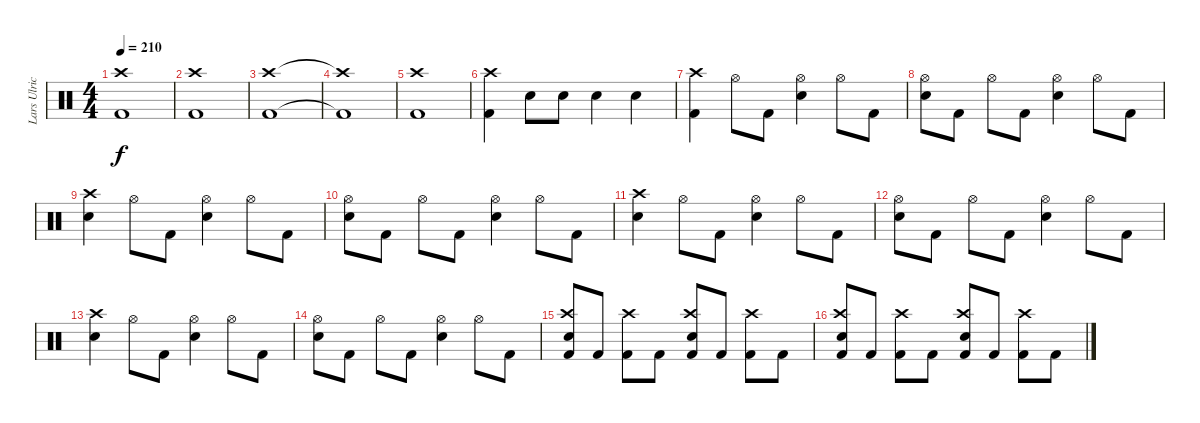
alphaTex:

\track ("Lars Ulrich" "Lars Ulric") {instrument percussion}
\staff {score}
\articulation defaults
\ts (4 4)
\tempo 210
\clef neutral
\ks c
("Kick (hit) 2"{t} "Crash high (hit)"{t}).1{dy f} |
("Kick (hit) 2" "Crash high (hit)").1 |
("Kick (hit) 2" "Crash high (hit)").1 |
("Kick (hit) 2"{t} "Crash high (hit)"{t}).1 |
("Kick (hit) 2" "Crash high (hit)").1 |
("Kick (hit) 2" "Crash high (hit)").4 "Snare (hit) 2".8 "Snare (hit) 2".8 "Snare (hit) 2".4 "Snare (hit) 2".4 |
("Kick (hit) 2" "Crash high (hit)").4 "Hi-Hat (open)".8 "Kick (hit) 2".8 ("Snare (hit) 2" "Hi-Hat (open)").4 "Hi-Hat (open)".8 "Kick (hit) 2".8 |
("Snare (hit) 2" "Hi-Hat (open)").8 "Kick (hit) 2".8 "Hi-Hat (open)".8 "Kick (hit) 2".8 ("Snare (hit) 2" "Hi-Hat (open)").4 "Hi-Hat (open)".8 "Kick (hit) 2".8 |
("Snare (hit) 2" "Crash high (hit)").4 "Hi-Hat (open)".8 "Kick (hit) 2".8 ("Snare (hit) 2" "Hi-Hat (open)").4 "Hi-Hat (open)".8 "Kick (hit) 2".8 |
("Snare (hit) 2" "Hi-Hat (open)").8 "Kick (hit) 2".8 "Hi-Hat (open)".8 "Kick (hit) 2".8 ("Snare (hit) 2" "Hi-Hat (open)").4 "Hi-Hat (open)".8 "Kick (hit) 2".8 |
("Snare (hit) 2" "Crash high (hit)").4 "Hi-Hat (open)".8 "Kick (hit) 2".8 ("Snare (hit) 2" "Hi-Hat (open)").4 "Hi-Hat (open)".8 "Kick (hit) 2".8 |
("Snare (hit) 2" "Hi-Hat (open)").8 "Kick (hit) 2".8 "Hi-Hat (open)".8 "Kick (hit) 2".8 ("Snare (hit) 2" "Hi-Hat (open)").4 "Hi-Hat (open)".8 "Kick (hit) 2".8 |
("Snare (hit) 2" "Crash high (hit)").4 "Hi-Hat (open)".8 "Kick (hit) 2".8 ("Snare (hit) 2" "Hi-Hat (open)").4 "Hi-Hat (open)".8 "Kick (hit) 2".8 |
("Snare (hit) 2" "Hi-Hat (open)").8 "Kick (hit) 2".8 "Hi-Hat (open)".8 "Kick (hit) 2".8 ("Snare (hit) 2" "Hi-Hat (open)").4 "Hi-Hat (open)".8 "Kick (hit) 2".8 |
("Kick (hit) 2" "Snare (hit) 2" "Crash high (hit)").8 "Kick (hit) 2".8 ("Kick (hit) 2" "Crash high (hit)").8 "Kick (hit) 2".8 ("Kick (hit) 2" "Snare (hit) 2" "Crash high (hit)").8 "Kick (hit) 2".8 ("Kick (hit) 2" "Crash high (hit)").8 "Kick (hit) 2".8 |
("Kick (hit) 2" "Snare (hit) 2" "Crash high (hit)").8 "Kick (hit) 2".8 ("Kick (hit) 2" "Crash high (hit)").8 "Kick (hit) 2".8 ("Kick (hit) 2" "Snare (hit) 2" "Crash high (hit)").8 "Kick (hit) 2".8 ("Kick (hit) 2" "Crash high (hit)").8 "Kick (hit) 2".8
